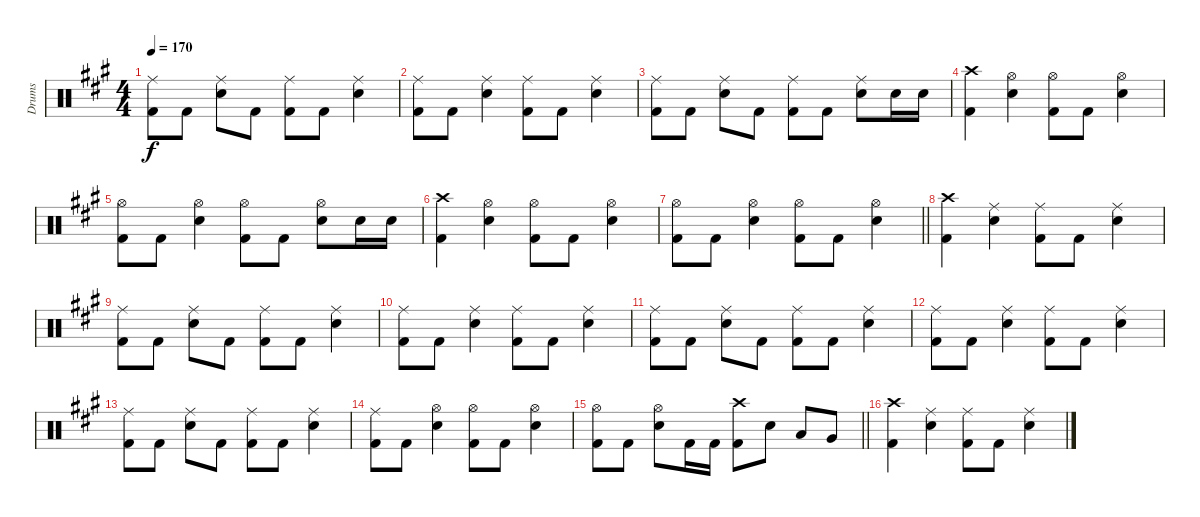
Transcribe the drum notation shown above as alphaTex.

\track ("Drums" "Drums") {instrument percussion}
\staff {score}
\articulation defaults
\ts (4 4)
\tempo 170
\clef neutral
\ks f#minor
("Ride (middle)" "Kick (hit) 2").8{dy f} "Kick (hit) 2".8 ("Ride (middle)" "Snare (hit) 2").8 "Kick (hit) 2".8 ("Ride (middle)" "Kick (hit) 2").8 "Kick (hit) 2".8 ("Ride (middle)" "Snare (hit) 2").4 |
("Ride (middle)" "Kick (hit) 2").8 "Kick (hit) 2".8 ("Ride (middle)" "Snare (hit) 2").4 ("Ride (middle)" "Kick (hit) 2").8 "Kick (hit) 2".8 ("Ride (middle)" "Snare (hit) 2").4 |
("Ride (middle)" "Kick (hit) 2").8 "Kick (hit) 2".8 ("Ride (middle)" "Snare (hit) 2").8 "Kick (hit) 2".8 ("Ride (middle)" "Kick (hit) 2").8 "Kick (hit) 2".8 ("Ride (middle)" "Snare (hit) 2").8 "Snare (hit) 2".16 "Snare (hit) 2".16 |
("Crash high (hit)" "Kick (hit) 2").4 ("Hi-Hat (open)" "Snare (hit) 2").4 ("Hi-Hat (open)" "Kick (hit) 2").8 "Kick (hit) 2".8 ("Hi-Hat (open)" "Snare (hit) 2").4 |
("Hi-Hat (open)" "Kick (hit) 2").8 "Kick (hit) 2".8 ("Hi-Hat (open)" "Snare (hit) 2").4 ("Hi-Hat (open)" "Kick (hit) 2").8 "Kick (hit) 2".8 ("Hi-Hat (open)" "Snare (hit) 2").8 "Snare (hit) 2".16 "Snare (hit) 2".16 |
("Crash high (hit)" "Kick (hit) 2").4 ("Hi-Hat (open)" "Snare (hit) 2").4 ("Hi-Hat (open)" "Kick (hit) 2").8 "Kick (hit) 2".8 ("Hi-Hat (open)" "Snare (hit) 2").4 |
\barLineRight lightlight
("Hi-Hat (open)" "Kick (hit) 2").8 "Kick (hit) 2".8 ("Hi-Hat (open)" "Snare (hit) 2").4 ("Hi-Hat (open)" "Kick (hit) 2").8 "Kick (hit) 2".8 ("Hi-Hat (open)" "Snare (hit) 2").4 |
("Crash high (hit)" "Kick (hit) 2").4 ("Ride (middle)" "Snare (hit) 2").4 ("Ride (middle)" "Kick (hit) 2").8 "Kick (hit) 2".8 ("Ride (middle)" "Snare (hit) 2").4 |
("Ride (middle)" "Kick (hit) 2").8 "Kick (hit) 2".8 ("Ride (middle)" "Snare (hit) 2").8 "Kick (hit) 2".8 ("Ride (middle)" "Kick (hit) 2").8 "Kick (hit) 2".8 ("Ride (middle)" "Snare (hit) 2").4 |
("Ride (middle)" "Kick (hit) 2").8 "Kick (hit) 2".8 ("Ride (middle)" "Snare (hit) 2").4 ("Ride (middle)" "Kick (hit) 2").8 "Kick (hit) 2".8 ("Ride (middle)" "Snare (hit) 2").4 |
("Ride (middle)" "Kick (hit) 2").8 "Kick (hit) 2".8 ("Ride (middle)" "Snare (hit) 2").8 "Kick (hit) 2".8 ("Ride (middle)" "Kick (hit) 2").8 "Kick (hit) 2".8 ("Ride (middle)" "Snare (hit) 2").4 |
("Ride (middle)" "Kick (hit) 2").8 "Kick (hit) 2".8 ("Ride (middle)" "Snare (hit) 2").4 ("Ride (middle)" "Kick (hit) 2").8 "Kick (hit) 2".8 ("Ride (middle)" "Snare (hit) 2").4 |
("Ride (middle)" "Kick (hit) 2").8 "Kick (hit) 2".8 ("Ride (middle)" "Snare (hit) 2").8 "Kick (hit) 2".8 ("Ride (middle)" "Kick (hit) 2").8 "Kick (hit) 2".8 ("Ride (middle)" "Snare (hit) 2").4 |
("Ride (middle)" "Kick (hit) 2").8 "Kick (hit) 2".8 ("Hi-Hat (open)" "Snare (hit) 2").4 ("Hi-Hat (open)" "Kick (hit) 2").8 "Kick (hit) 2".8 ("Hi-Hat (open)" "Snare (hit) 2").4 |
\barLineRight lightlight
("Hi-Hat (open)" "Kick (hit) 2").8 "Kick (hit) 2".8 ("Hi-Hat (open)" "Snare (hit) 2").8 "Kick (hit) 2".16 "Kick (hit) 2".16 ("Crash high (hit)" "Kick (hit) 2").8 "Snare (hit) 2".8 "Low Tom (hit)".8 "Very Low Tom (hit)".8 |
("Crash high (hit)" "Kick (hit) 2").4 ("Ride (middle)" "Snare (hit) 2").4 ("Ride (middle)" "Kick (hit) 2").8 "Kick (hit) 2".8 ("Ride (middle)" "Snare (hit) 2").4
